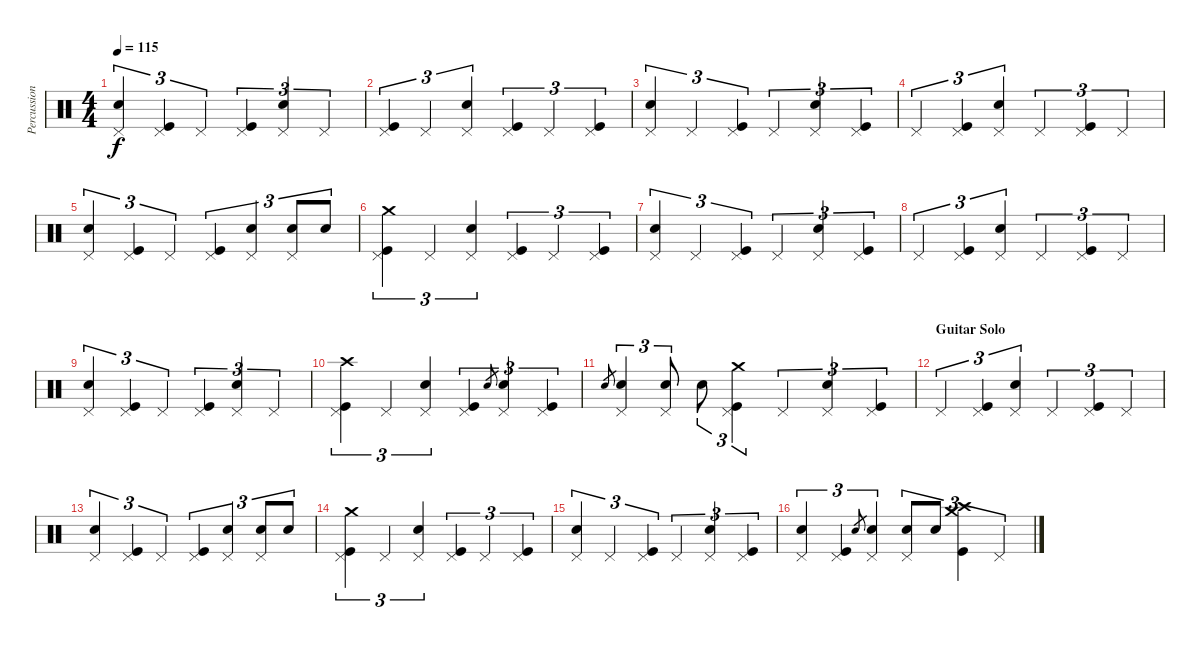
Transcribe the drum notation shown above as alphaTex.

\track ("Percussion" "Percussion") {instrument percussion}
\staff {score}
\articulation defaults
\ts (4 4)
\tempo 115
\clef neutral
\ks c
("Pedal Hi-Hat (hit)" "Electric Snare (hit)").4{tu (3 2) dy f} ("Pedal Hi-Hat (hit)" "Kick (hit)").4{tu (3 2)} "Pedal Hi-Hat (hit)".4{tu (3 2)} ("Pedal Hi-Hat (hit)" "Kick (hit)").4{tu (3 2)} ("Pedal Hi-Hat (hit)" "Electric Snare (hit)").4{tu (3 2)} "Pedal Hi-Hat (hit)".4{tu (3 2)} |
("Pedal Hi-Hat (hit)" "Kick (hit)").4{tu (3 2)} "Pedal Hi-Hat (hit)".4{tu (3 2)} ("Pedal Hi-Hat (hit)" "Electric Snare (hit)").4{tu (3 2)} ("Pedal Hi-Hat (hit)" "Kick (hit)").4{tu (3 2)} "Pedal Hi-Hat (hit)".4{tu (3 2)} ("Pedal Hi-Hat (hit)" "Kick (hit)").4{tu (3 2)} |
("Pedal Hi-Hat (hit)" "Electric Snare (hit)").4{tu (3 2)} "Pedal Hi-Hat (hit)".4{tu (3 2)} ("Pedal Hi-Hat (hit)" "Kick (hit)").4{tu (3 2)} "Pedal Hi-Hat (hit)".4{tu (3 2)} ("Pedal Hi-Hat (hit)" "Electric Snare (hit)").4{tu (3 2)} ("Pedal Hi-Hat (hit)" "Kick (hit)").4{tu (3 2)} |
"Pedal Hi-Hat (hit)".4{tu (3 2)} ("Pedal Hi-Hat (hit)" "Kick (hit)").4{tu (3 2)} ("Pedal Hi-Hat (hit)" "Electric Snare (hit)").4{tu (3 2)} "Pedal Hi-Hat (hit)".4{tu (3 2)} ("Pedal Hi-Hat (hit)" "Kick (hit)").4{tu (3 2)} "Pedal Hi-Hat (hit)".4{tu (3 2)} |
("Pedal Hi-Hat (hit)" "Electric Snare (hit)").4{tu (3 2)} ("Pedal Hi-Hat (hit)" "Kick (hit)").4{tu (3 2)} "Pedal Hi-Hat (hit)".4{tu (3 2)} ("Pedal Hi-Hat (hit)" "Kick (hit)").4{tu (3 2)} ("Pedal Hi-Hat (hit)" "Electric Snare (hit)").4{tu (3 2)} ("Pedal Hi-Hat (hit)" "Electric Snare (hit)").8{tu (3 2)} "Electric Snare (hit)".8{tu (3 2)} |
("Crash medium (hit)" "Pedal Hi-Hat (hit)" "Kick (hit)").4{tu (3 2)} "Pedal Hi-Hat (hit)".4{tu (3 2)} ("Pedal Hi-Hat (hit)" "Electric Snare (hit)").4{tu (3 2)} ("Pedal Hi-Hat (hit)" "Kick (hit)").4{tu (3 2)} "Pedal Hi-Hat (hit)".4{tu (3 2)} ("Pedal Hi-Hat (hit)" "Kick (hit)").4{tu (3 2)} |
("Pedal Hi-Hat (hit)" "Electric Snare (hit)").4{tu (3 2)} "Pedal Hi-Hat (hit)".4{tu (3 2)} ("Pedal Hi-Hat (hit)" "Kick (hit)").4{tu (3 2)} "Pedal Hi-Hat (hit)".4{tu (3 2)} ("Pedal Hi-Hat (hit)" "Electric Snare (hit)").4{tu (3 2)} ("Pedal Hi-Hat (hit)" "Kick (hit)").4{tu (3 2)} |
"Pedal Hi-Hat (hit)".4{tu (3 2)} ("Pedal Hi-Hat (hit)" "Kick (hit)").4{tu (3 2)} ("Pedal Hi-Hat (hit)" "Electric Snare (hit)").4{tu (3 2)} "Pedal Hi-Hat (hit)".4{tu (3 2)} ("Pedal Hi-Hat (hit)" "Kick (hit)").4{tu (3 2)} "Pedal Hi-Hat (hit)".4{tu (3 2)} |
("Pedal Hi-Hat (hit)" "Electric Snare (hit)").4{tu (3 2)} ("Pedal Hi-Hat (hit)" "Kick (hit)").4{tu (3 2)} "Pedal Hi-Hat (hit)".4{tu (3 2)} ("Pedal Hi-Hat (hit)" "Kick (hit)").4{tu (3 2)} ("Pedal Hi-Hat (hit)" "Electric Snare (hit)").4{tu (3 2)} "Pedal Hi-Hat (hit)".4{tu (3 2)} |
("Crash high (hit)" "Pedal Hi-Hat (hit)" "Kick (hit)").4{tu (3 2)} "Pedal Hi-Hat (hit)".4{tu (3 2)} ("Pedal Hi-Hat (hit)" "Electric Snare (hit)").4{tu (3 2)} ("Pedal Hi-Hat (hit)" "Kick (hit)").4{tu (3 2)} "Electric Snare (hit)".8{gr} ("Pedal Hi-Hat (hit)" "Electric Snare (hit)").4{tu (3 2)} ("Pedal Hi-Hat (hit)" "Kick (hit)").4{tu (3 2)} |
"Electric Snare (hit)".8{gr} ("Pedal Hi-Hat (hit)" "Electric Snare (hit)").4{tu (3 2)} ("Pedal Hi-Hat (hit)" "Electric Snare (hit)").8{tu (3 2)} "Electric Snare (hit)".8{tu (3 2)} ("Crash medium (hit)" "Pedal Hi-Hat (hit)" "Kick (hit)").4{tu (3 2)} "Pedal Hi-Hat (hit)".4{tu (3 2)} ("Pedal Hi-Hat (hit)" "Electric Snare (hit)").4{tu (3 2)} ("Pedal Hi-Hat (hit)" "Kick (hit)").4{tu (3 2)} |
\section ("" "Guitar Solo")
"Pedal Hi-Hat (hit)".4{tu (3 2)} ("Pedal Hi-Hat (hit)" "Kick (hit)").4{tu (3 2)} ("Pedal Hi-Hat (hit)" "Electric Snare (hit)").4{tu (3 2)} "Pedal Hi-Hat (hit)".4{tu (3 2)} ("Pedal Hi-Hat (hit)" "Kick (hit)").4{tu (3 2)} "Pedal Hi-Hat (hit)".4{tu (3 2)} |
("Pedal Hi-Hat (hit)" "Electric Snare (hit)").4{tu (3 2)} ("Pedal Hi-Hat (hit)" "Kick (hit)").4{tu (3 2)} "Pedal Hi-Hat (hit)".4{tu (3 2)} ("Pedal Hi-Hat (hit)" "Kick (hit)").4{tu (3 2)} ("Pedal Hi-Hat (hit)" "Electric Snare (hit)").4{tu (3 2)} ("Pedal Hi-Hat (hit)" "Electric Snare (hit)").8{tu (3 2)} "Electric Snare (hit)".8{tu (3 2)} |
("Crash medium (hit)" "Pedal Hi-Hat (hit)" "Kick (hit)").4{tu (3 2)} "Pedal Hi-Hat (hit)".4{tu (3 2)} ("Pedal Hi-Hat (hit)" "Electric Snare (hit)").4{tu (3 2)} ("Pedal Hi-Hat (hit)" "Kick (hit)").4{tu (3 2)} "Pedal Hi-Hat (hit)".4{tu (3 2)} ("Pedal Hi-Hat (hit)" "Kick (hit)").4{tu (3 2)} |
("Pedal Hi-Hat (hit)" "Electric Snare (hit)").4{tu (3 2)} "Pedal Hi-Hat (hit)".4{tu (3 2)} ("Pedal Hi-Hat (hit)" "Kick (hit)").4{tu (3 2)} "Pedal Hi-Hat (hit)".4{tu (3 2)} ("Pedal Hi-Hat (hit)" "Electric Snare (hit)").4{tu (3 2)} ("Pedal Hi-Hat (hit)" "Kick (hit)").4{tu (3 2)} |
("Pedal Hi-Hat (hit)" "Electric Snare (hit)").4{tu (3 2)} ("Pedal Hi-Hat (hit)" "Kick (hit)").4{tu (3 2)} "Electric Snare (hit)".8{gr} ("Pedal Hi-Hat (hit)" "Electric Snare (hit)").4{tu (3 2)} ("Pedal Hi-Hat (hit)" "Electric Snare (hit)").8{tu (3 2)} "Electric Snare (hit)".8{tu (3 2)} ("Crash medium (hit)" "Crash high (hit)" "Kick (hit)").4{tu (3 2)} "Pedal Hi-Hat (hit)".4{tu (3 2)}
